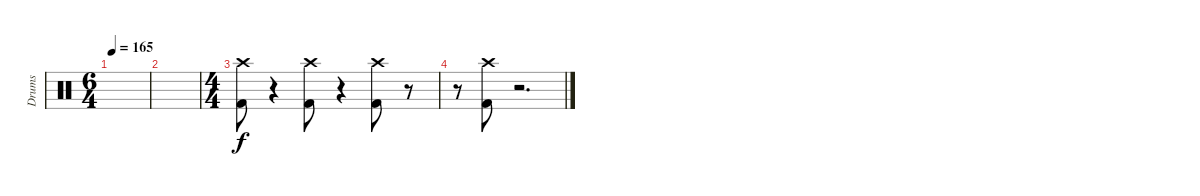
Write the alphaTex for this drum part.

\track ("Drums" "Drums") {instrument percussion}
\staff {score}
\articulation defaults
\ts (6 4)
\tempo 165
\clef neutral
\ks c
|
|
\ts (4 4)
("Crash high (hit)" "Kick (hit) 2").8{volume 13} r.4{volume 0} ("Crash high (hit)" "Kick (hit) 2").8{volume 13} r.4{volume 0} ("Crash high (hit)" "Kick (hit) 2").8{volume 13} r.8{volume 0} |
r.8{volume 0} ("Crash high (hit)" "Kick (hit) 2").8{volume 13} r.2{d volume 0}
